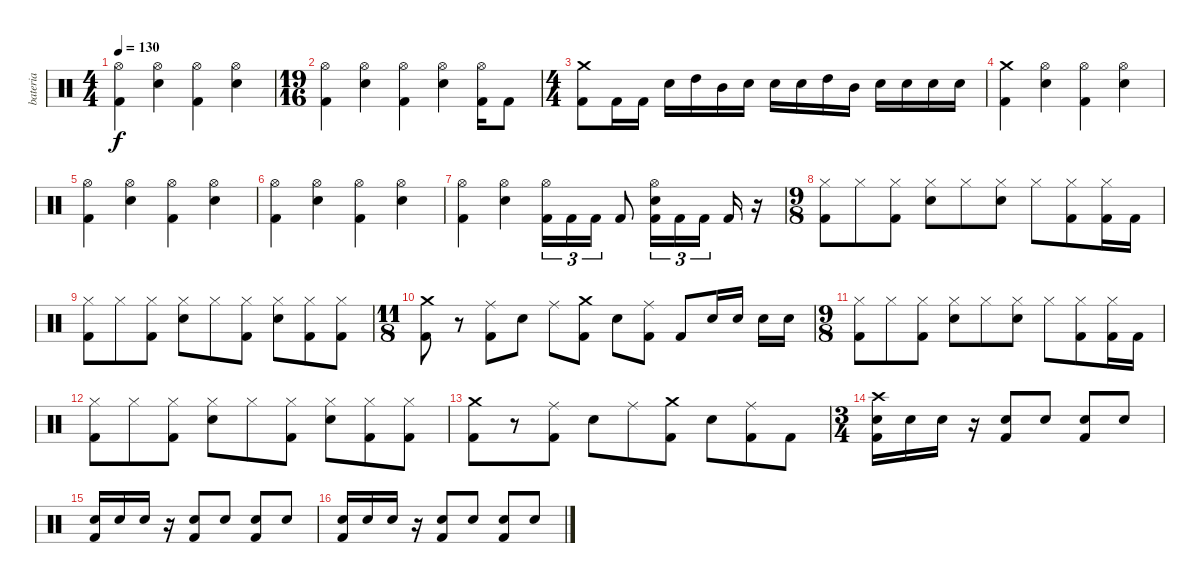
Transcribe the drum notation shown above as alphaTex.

\track ("bateria" "bateria") {instrument percussion}
\staff {score}
\articulation defaults
\ts (4 4)
\tempo 130
\clef neutral
\ks c
("Hi-Hat (open)" "Kick (hit) 2").4{dy f} ("Hi-Hat (open)" "Electric Snare (hit)").4 ("Hi-Hat (open)" "Kick (hit) 2").4 ("Hi-Hat (open)" "Electric Snare (hit)").4 |
\ts (19 16)
("Hi-Hat (open)" "Kick (hit) 2").4 ("Hi-Hat (open)" "Electric Snare (hit)").4 ("Hi-Hat (open)" "Kick (hit) 2").4 ("Hi-Hat (open)" "Electric Snare (hit)").4 ("Hi-Hat (open)" "Kick (hit) 2").16 "Kick (hit) 2".8 |
\ts (4 4)
("Crash medium (hit)" "Kick (hit) 2").8 "Kick (hit) 2".16 "Kick (hit) 2".16 "Electric Snare (hit)".16 "High Tom (hit)".16 "Mid Tom (hit)".16 "Electric Snare (hit)".16 "Electric Snare (hit)".16 "Electric Snare (hit)".16 "High Tom (hit)".16 "Mid Tom (hit)".16 "Electric Snare (hit)".16 "Electric Snare (hit)".16 "Electric Snare (hit)".16 "Electric Snare (hit)".16 |
("Crash medium (hit)" "Kick (hit) 2").4 ("Hi-Hat (open)" "Electric Snare (hit)").4 ("Hi-Hat (open)" "Kick (hit) 2").4 ("Hi-Hat (open)" "Electric Snare (hit)").4 |
("Hi-Hat (open)" "Kick (hit) 2").4 ("Hi-Hat (open)" "Electric Snare (hit)").4 ("Hi-Hat (open)" "Kick (hit) 2").4 ("Hi-Hat (open)" "Electric Snare (hit)").4 |
("Hi-Hat (open)" "Kick (hit) 2").4 ("Hi-Hat (open)" "Electric Snare (hit)").4 ("Hi-Hat (open)" "Kick (hit) 2").4 ("Hi-Hat (open)" "Electric Snare (hit)").4 |
("Hi-Hat (open)" "Kick (hit) 2").4 ("Hi-Hat (open)" "Electric Snare (hit)").4 ("Hi-Hat (open)" "Kick (hit) 2").16{tu (3 2)} "Kick (hit) 2".16{tu (3 2)} "Kick (hit) 2".16{tu (3 2)} "Kick (hit) 2".8 ("Hi-Hat (open)" "Electric Snare (hit)" "Kick (hit) 2").16{tu (3 2)} "Kick (hit) 2".16{tu (3 2)} "Kick (hit) 2".16{tu (3 2)} "Kick (hit) 2".16 r.16 |
\ts (9 8)
("Hi-Hat (closed)" "Kick (hit) 2").8 "Hi-Hat (closed)".8 ("Hi-Hat (closed)" "Kick (hit) 2").8 ("Hi-Hat (closed)" "Electric Snare (hit)").8 "Hi-Hat (closed)".8 ("Hi-Hat (closed)" "Electric Snare (hit)").8 "Hi-Hat (closed)".8 ("Hi-Hat (closed)" "Kick (hit) 2").8 ("Hi-Hat (closed)" "Kick (hit) 2").16 "Kick (hit) 2".16 |
("Hi-Hat (closed)" "Kick (hit) 2").8 "Hi-Hat (closed)".8 ("Hi-Hat (closed)" "Kick (hit) 2").8 ("Hi-Hat (closed)" "Electric Snare (hit)").8 "Hi-Hat (closed)".8 ("Hi-Hat (closed)" "Kick (hit) 2").8 ("Hi-Hat (closed)" "Electric Snare (hit)").8 ("Hi-Hat (closed)" "Kick (hit) 2").8 ("Hi-Hat (closed)" "Kick (hit) 2").8 |
\ts (11 8)
("Crash medium (hit)" "Kick (hit) 2").8 r.8 ("Ride (middle)" "Kick (hit) 2").8 "Electric Snare (hit)".8 "Ride (middle)".8 ("Crash medium (hit)" "Kick (hit) 2").8 "Electric Snare (hit)".8 ("Ride (middle)" "Kick (hit) 2").8 "Kick (hit) 2".8 "Electric Snare (hit)".16 "Electric Snare (hit)".16 "Electric Snare (hit)".16 "Electric Snare (hit)".16 |
\ts (9 8)
("Hi-Hat (closed)" "Kick (hit) 2").8 "Hi-Hat (closed)".8 ("Hi-Hat (closed)" "Kick (hit) 2").8 ("Hi-Hat (closed)" "Electric Snare (hit)").8 "Hi-Hat (closed)".8 ("Hi-Hat (closed)" "Electric Snare (hit)").8 "Hi-Hat (closed)".8 ("Hi-Hat (closed)" "Kick (hit) 2").8 ("Hi-Hat (closed)" "Kick (hit) 2").16 "Kick (hit) 2".16 |
("Hi-Hat (closed)" "Kick (hit) 2").8 "Hi-Hat (closed)".8 ("Hi-Hat (closed)" "Kick (hit) 2").8 ("Hi-Hat (closed)" "Electric Snare (hit)").8 "Hi-Hat (closed)".8 ("Hi-Hat (closed)" "Kick (hit) 2").8 ("Hi-Hat (closed)" "Electric Snare (hit)").8 ("Hi-Hat (closed)" "Kick (hit) 2").8 ("Hi-Hat (closed)" "Kick (hit) 2").8 |
("Crash medium (hit)" "Kick (hit) 2").8 r.8 ("Ride (middle)" "Kick (hit) 2").8 "Electric Snare (hit)".8 "Ride (middle)".8 ("Crash medium (hit)" "Kick (hit) 2").8 "Electric Snare (hit)".8 ("Ride (middle)" "Kick (hit) 2").8 "Kick (hit) 2".8 |
\ts (3 4)
("Crash high (hit)" "Electric Snare (hit)" "Kick (hit) 2").16 "Electric Snare (hit)".16 "Electric Snare (hit)".16 r.16 ("Electric Snare (hit)" "Kick (hit) 2").8 "Electric Snare (hit)".8 ("Electric Snare (hit)" "Kick (hit) 2").8 "Electric Snare (hit)".8 |
("Electric Snare (hit)" "Kick (hit) 2").16 "Electric Snare (hit)".16 "Electric Snare (hit)".16 r.16 ("Electric Snare (hit)" "Kick (hit) 2").8 "Electric Snare (hit)".8 ("Electric Snare (hit)" "Kick (hit) 2").8 "Electric Snare (hit)".8 |
("Electric Snare (hit)" "Kick (hit) 2").16 "Electric Snare (hit)".16 "Electric Snare (hit)".16 r.16 ("Electric Snare (hit)" "Kick (hit) 2").8 "Electric Snare (hit)".8 ("Electric Snare (hit)" "Kick (hit) 2").8 "Electric Snare (hit)".8
